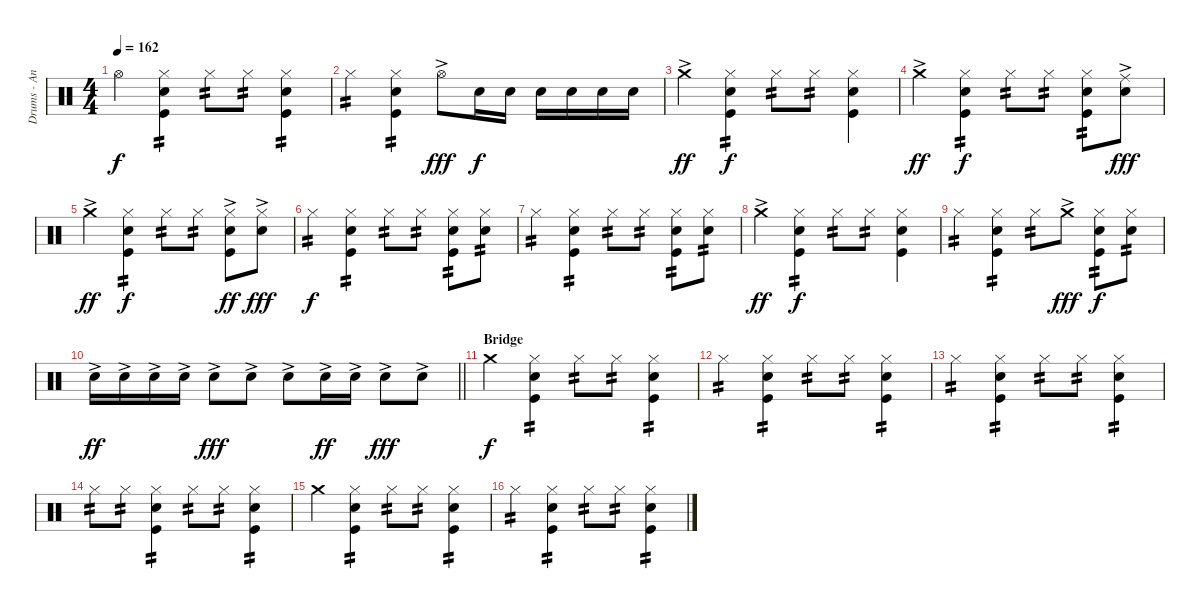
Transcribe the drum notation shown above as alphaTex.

\track ("Drums - Andriushkin" "Drums - An") {instrument percussion}
\staff {score}
\articulation defaults
\ts (4 4)
\tempo 162
\clef neutral
\ks c "Hi-Hat (open)".4{dy f}
("Hi-Hat (closed)" "Electric Snare (hit)" "Kick (hit)").4{tp 2} "Hi-Hat (closed)".8{tp 2} "Hi-Hat (closed)".8{tp 2} ("Hi-Hat (closed)" "Electric Snare (hit)" "Kick (hit)").4{tp 2} |
"Hi-Hat (closed)".4{tp 2} ("Hi-Hat (closed)" "Electric Snare (hit)" "Kick (hit)").4{tp 2} "Hi-Hat (open)"{ac}.8{dy fff} "Electric Snare (hit)".16{dy f} "Electric Snare (hit)".16 "Electric Snare (hit)".16 "Electric Snare (hit)".16 "Electric Snare (hit)".16 "Electric Snare (hit)".16 |
"Crash medium (hit)"{ac}.4{dy ff} ("Hi-Hat (closed)" "Electric Snare (hit)" "Kick (hit)").4{tp 2 dy f} "Hi-Hat (closed)".8{tp 2} "Hi-Hat (closed)".8{tp 2} ("Hi-Hat (closed)" "Electric Snare (hit)" "Kick (hit)").4 |
"Crash medium (hit)"{ac}.4{dy ff} ("Hi-Hat (closed)" "Electric Snare (hit)" "Kick (hit)").4{tp 2 dy f} "Hi-Hat (closed)".8{tp 2} "Hi-Hat (closed)".8{tp 2} ("Hi-Hat (closed)" "Electric Snare (hit)" "Kick (hit)").8{tp 2} ("Ride (middle)"{ac} "Electric Snare (hit)").8{dy fff} |
"Crash medium (hit)"{ac}.4{dy ff} ("Hi-Hat (closed)" "Electric Snare (hit)" "Kick (hit)").4{tp 2 dy f} "Hi-Hat (closed)".8{tp 2} "Hi-Hat (closed)".8{tp 2} ("Hi-Hat (closed)" "Electric Snare (hit)"{ac} "Kick (hit)").8{dy ff} ("Hi-Hat (closed)" "Electric Snare (hit)"{ac}).8{dy fff} |
"Hi-Hat (closed)".4{tp 2 dy f} ("Hi-Hat (closed)" "Electric Snare (hit)" "Kick (hit)").4{tp 2} "Hi-Hat (closed)".8{tp 2} "Hi-Hat (closed)".8{tp 2} ("Hi-Hat (closed)" "Electric Snare (hit)" "Kick (hit)").8{tp 2} ("Hi-Hat (closed)" "Electric Snare (hit)").8{tp 2} |
"Hi-Hat (closed)".4{tp 2} ("Hi-Hat (closed)" "Electric Snare (hit)" "Kick (hit)").4{tp 2} "Hi-Hat (closed)".8{tp 2} "Hi-Hat (closed)".8{tp 2} ("Hi-Hat (closed)" "Electric Snare (hit)" "Kick (hit)").8{tp 2} ("Hi-Hat (closed)" "Electric Snare (hit)").8{tp 2} |
"Crash medium (hit)"{ac}.4{dy ff} ("Hi-Hat (closed)" "Electric Snare (hit)" "Kick (hit)").4{tp 2 dy f} "Hi-Hat (closed)".8{tp 2} "Hi-Hat (closed)".8{tp 2} ("Hi-Hat (closed)" "Electric Snare (hit)" "Kick (hit)").4 |
"Hi-Hat (closed)".4{tp 2} ("Hi-Hat (closed)" "Electric Snare (hit)" "Kick (hit)").4{tp 2} "Hi-Hat (closed)".8{tp 2} "Crash medium (hit)"{ac}.8{dy fff} ("Hi-Hat (closed)" "Electric Snare (hit)" "Kick (hit)").8{tp 2 dy f} ("Hi-Hat (closed)" "Electric Snare (hit)").8{tp 2} |
\barLineRight lightlight "Electric Snare (hit)"{ac}.16{dy ff} "Electric Snare (hit)"{ac}.16 "Electric Snare (hit)"{ac}.16 "Electric Snare (hit)"{ac}.16 "Electric Snare (hit)"{ac}.8{dy fff} "Electric Snare (hit)"{ac}.8 "Electric Snare (hit)"{ac}.8 "Electric Snare (hit)"{ac}.16{dy ff} "Electric Snare (hit)"{ac}.16 "Electric Snare (hit)"{ac}.8{dy fff} "Electric Snare (hit)"{ac}.8
|
\section ("" "Bridge")
"Crash medium (hit)".4{dy f} ("Hi-Hat (closed)" "Electric Snare (hit)" "Kick (hit)").4{tp 2} "Hi-Hat (closed)".8{tp 2} "Hi-Hat (closed)".8{tp 2} ("Hi-Hat (closed)" "Electric Snare (hit)" "Kick (hit)").4{tp 2} |
"Hi-Hat (closed)".4{tp 2} ("Hi-Hat (closed)" "Electric Snare (hit)" "Kick (hit)").4{tp 2} "Hi-Hat (closed)".8{tp 2} "Hi-Hat (closed)".8{tp 2} ("Hi-Hat (closed)" "Electric Snare (hit)" "Kick (hit)").4{tp 2} |
"Hi-Hat (closed)".4{tp 2} ("Hi-Hat (closed)" "Electric Snare (hit)" "Kick (hit)").4{tp 2} "Hi-Hat (closed)".8{tp 2} "Hi-Hat (closed)".8{tp 2} ("Hi-Hat (closed)" "Electric Snare (hit)" "Kick (hit)").4{tp 2} |
"Hi-Hat (closed)".8{tp 2} "Hi-Hat (closed)".8{tp 2} ("Hi-Hat (closed)" "Electric Snare (hit)" "Kick (hit)").4{tp 2} "Hi-Hat (closed)".8{tp 2} "Hi-Hat (closed)".8{tp 2} ("Hi-Hat (closed)" "Electric Snare (hit)" "Kick (hit)").4{tp 2} |
"Crash medium (hit)".4 ("Hi-Hat (closed)" "Electric Snare (hit)" "Kick (hit)").4{tp 2} "Hi-Hat (closed)".8{tp 2} "Hi-Hat (closed)".8{tp 2} ("Hi-Hat (closed)" "Electric Snare (hit)" "Kick (hit)").4{tp 2} |
"Hi-Hat (closed)".4{tp 2} ("Hi-Hat (closed)" "Electric Snare (hit)" "Kick (hit)").4{tp 2} "Hi-Hat (closed)".8{tp 2} "Hi-Hat (closed)".8{tp 2} ("Hi-Hat (closed)" "Electric Snare (hit)" "Kick (hit)").4{tp 2}
